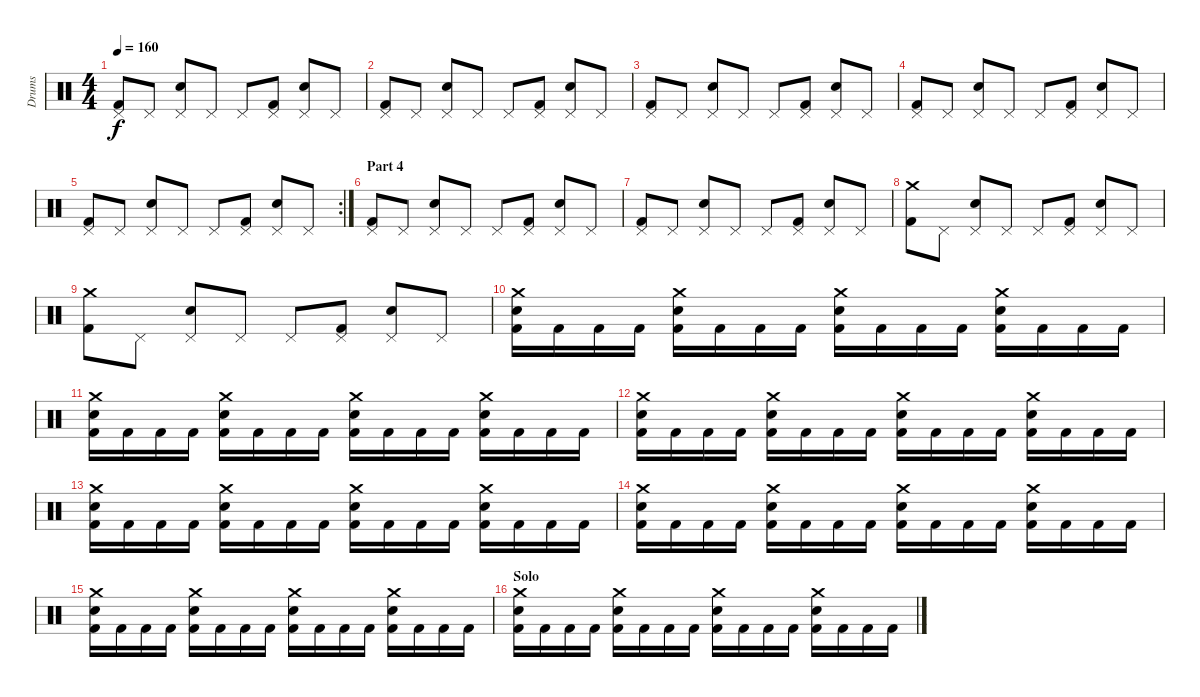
\track ("Drums" "Drums") {instrument percussion}
\staff {score}
\articulation defaults
\ts (4 4)
\tempo 160
\clef neutral
\ks c
("Pedal Hi-Hat (hit)" "Kick (hit) 2").8{dy f} "Pedal Hi-Hat (hit)".8 ("Pedal Hi-Hat (hit)" "Electric Snare (hit)").8 "Pedal Hi-Hat (hit)".8 "Pedal Hi-Hat (hit)".8 ("Pedal Hi-Hat (hit)" "Kick (hit) 2").8 ("Pedal Hi-Hat (hit)" "Electric Snare (hit)").8 "Pedal Hi-Hat (hit)".8 |
("Pedal Hi-Hat (hit)" "Kick (hit) 2").8 "Pedal Hi-Hat (hit)".8 ("Pedal Hi-Hat (hit)" "Electric Snare (hit)").8 "Pedal Hi-Hat (hit)".8 "Pedal Hi-Hat (hit)".8 ("Pedal Hi-Hat (hit)" "Kick (hit) 2").8 ("Pedal Hi-Hat (hit)" "Electric Snare (hit)").8 "Pedal Hi-Hat (hit)".8 |
("Pedal Hi-Hat (hit)" "Kick (hit) 2").8 "Pedal Hi-Hat (hit)".8 ("Pedal Hi-Hat (hit)" "Electric Snare (hit)").8 "Pedal Hi-Hat (hit)".8 "Pedal Hi-Hat (hit)".8 ("Pedal Hi-Hat (hit)" "Kick (hit) 2").8 ("Pedal Hi-Hat (hit)" "Electric Snare (hit)").8 "Pedal Hi-Hat (hit)".8 |
("Pedal Hi-Hat (hit)" "Kick (hit) 2").8 "Pedal Hi-Hat (hit)".8 ("Pedal Hi-Hat (hit)" "Electric Snare (hit)").8 "Pedal Hi-Hat (hit)".8 "Pedal Hi-Hat (hit)".8 ("Pedal Hi-Hat (hit)" "Kick (hit) 2").8 ("Pedal Hi-Hat (hit)" "Electric Snare (hit)").8 "Pedal Hi-Hat (hit)".8 |
\rc 2
("Pedal Hi-Hat (hit)" "Kick (hit) 2").8 "Pedal Hi-Hat (hit)".8 ("Pedal Hi-Hat (hit)" "Electric Snare (hit)").8 "Pedal Hi-Hat (hit)".8 "Pedal Hi-Hat (hit)".8 ("Pedal Hi-Hat (hit)" "Kick (hit) 2").8 ("Pedal Hi-Hat (hit)" "Electric Snare (hit)").8 "Pedal Hi-Hat (hit)".8 |
\section ("" "Part 4")
("Pedal Hi-Hat (hit)" "Kick (hit) 2").8 "Pedal Hi-Hat (hit)".8 ("Pedal Hi-Hat (hit)" "Electric Snare (hit)").8 "Pedal Hi-Hat (hit)".8 "Pedal Hi-Hat (hit)".8 ("Pedal Hi-Hat (hit)" "Kick (hit) 2").8 ("Pedal Hi-Hat (hit)" "Electric Snare (hit)").8 "Pedal Hi-Hat (hit)".8 |
("Pedal Hi-Hat (hit)" "Kick (hit) 2").8 "Pedal Hi-Hat (hit)".8 ("Pedal Hi-Hat (hit)" "Electric Snare (hit)").8 "Pedal Hi-Hat (hit)".8 "Pedal Hi-Hat (hit)".8 ("Pedal Hi-Hat (hit)" "Kick (hit) 2").8 ("Pedal Hi-Hat (hit)" "Electric Snare (hit)").8 "Pedal Hi-Hat (hit)".8 |
("Crash medium (hit)" "Kick (hit) 2").8 "Pedal Hi-Hat (hit)".8 ("Pedal Hi-Hat (hit)" "Electric Snare (hit)").8 "Pedal Hi-Hat (hit)".8 "Pedal Hi-Hat (hit)".8 ("Pedal Hi-Hat (hit)" "Kick (hit) 2").8 ("Pedal Hi-Hat (hit)" "Electric Snare (hit)").8 "Pedal Hi-Hat (hit)".8 |
("Crash medium (hit)" "Kick (hit) 2").8 "Pedal Hi-Hat (hit)".8 ("Pedal Hi-Hat (hit)" "Electric Snare (hit)").8 "Pedal Hi-Hat (hit)".8 "Pedal Hi-Hat (hit)".8 ("Pedal Hi-Hat (hit)" "Kick (hit) 2").8 ("Pedal Hi-Hat (hit)" "Electric Snare (hit)").8 "Pedal Hi-Hat (hit)".8 |
("Crash medium (hit)" "Electric Snare (hit)" "Kick (hit) 2").16 "Kick (hit) 2".16 "Kick (hit) 2".16 "Kick (hit) 2".16 ("Crash medium (hit)" "Electric Snare (hit)" "Kick (hit) 2").16 "Kick (hit) 2".16 "Kick (hit) 2".16 "Kick (hit) 2".16 ("Crash medium (hit)" "Electric Snare (hit)" "Kick (hit) 2").16 "Kick (hit) 2".16 "Kick (hit) 2".16 "Kick (hit) 2".16 ("Crash medium (hit)" "Electric Snare (hit)" "Kick (hit) 2").16 "Kick (hit) 2".16 "Kick (hit) 2".16 "Kick (hit) 2".16 |
("Crash medium (hit)" "Electric Snare (hit)" "Kick (hit) 2").16 "Kick (hit) 2".16 "Kick (hit) 2".16 "Kick (hit) 2".16 ("Crash medium (hit)" "Electric Snare (hit)" "Kick (hit) 2").16 "Kick (hit) 2".16 "Kick (hit) 2".16 "Kick (hit) 2".16 ("Crash medium (hit)" "Electric Snare (hit)" "Kick (hit) 2").16 "Kick (hit) 2".16 "Kick (hit) 2".16 "Kick (hit) 2".16 ("Crash medium (hit)" "Electric Snare (hit)" "Kick (hit) 2").16 "Kick (hit) 2".16 "Kick (hit) 2".16 "Kick (hit) 2".16 |
("Crash medium (hit)" "Electric Snare (hit)" "Kick (hit) 2").16 "Kick (hit) 2".16 "Kick (hit) 2".16 "Kick (hit) 2".16 ("Crash medium (hit)" "Electric Snare (hit)" "Kick (hit) 2").16 "Kick (hit) 2".16 "Kick (hit) 2".16 "Kick (hit) 2".16 ("Crash medium (hit)" "Electric Snare (hit)" "Kick (hit) 2").16 "Kick (hit) 2".16 "Kick (hit) 2".16 "Kick (hit) 2".16 ("Crash medium (hit)" "Electric Snare (hit)" "Kick (hit) 2").16 "Kick (hit) 2".16 "Kick (hit) 2".16 "Kick (hit) 2".16 |
("Crash medium (hit)" "Electric Snare (hit)" "Kick (hit) 2").16 "Kick (hit) 2".16 "Kick (hit) 2".16 "Kick (hit) 2".16 ("Crash medium (hit)" "Electric Snare (hit)" "Kick (hit) 2").16 "Kick (hit) 2".16 "Kick (hit) 2".16 "Kick (hit) 2".16 ("Crash medium (hit)" "Electric Snare (hit)" "Kick (hit) 2").16 "Kick (hit) 2".16 "Kick (hit) 2".16 "Kick (hit) 2".16 ("Crash medium (hit)" "Electric Snare (hit)" "Kick (hit) 2").16 "Kick (hit) 2".16 "Kick (hit) 2".16 "Kick (hit) 2".16 |
("Crash medium (hit)" "Electric Snare (hit)" "Kick (hit) 2").16 "Kick (hit) 2".16 "Kick (hit) 2".16 "Kick (hit) 2".16 ("Crash medium (hit)" "Electric Snare (hit)" "Kick (hit) 2").16 "Kick (hit) 2".16 "Kick (hit) 2".16 "Kick (hit) 2".16 ("Crash medium (hit)" "Electric Snare (hit)" "Kick (hit) 2").16 "Kick (hit) 2".16 "Kick (hit) 2".16 "Kick (hit) 2".16 ("Crash medium (hit)" "Electric Snare (hit)" "Kick (hit) 2").16 "Kick (hit) 2".16 "Kick (hit) 2".16 "Kick (hit) 2".16 |
("Crash medium (hit)" "Electric Snare (hit)" "Kick (hit) 2").16 "Kick (hit) 2".16 "Kick (hit) 2".16 "Kick (hit) 2".16 ("Crash medium (hit)" "Electric Snare (hit)" "Kick (hit) 2").16 "Kick (hit) 2".16 "Kick (hit) 2".16 "Kick (hit) 2".16 ("Crash medium (hit)" "Electric Snare (hit)" "Kick (hit) 2").16 "Kick (hit) 2".16 "Kick (hit) 2".16 "Kick (hit) 2".16 ("Crash medium (hit)" "Electric Snare (hit)" "Kick (hit) 2").16 "Kick (hit) 2".16 "Kick (hit) 2".16 "Kick (hit) 2".16 |
\section ("" "Solo")
("Crash medium (hit)" "Electric Snare (hit)" "Kick (hit) 2").16 "Kick (hit) 2".16 "Kick (hit) 2".16 "Kick (hit) 2".16 ("Crash medium (hit)" "Electric Snare (hit)" "Kick (hit) 2").16 "Kick (hit) 2".16 "Kick (hit) 2".16 "Kick (hit) 2".16 ("Crash medium (hit)" "Electric Snare (hit)" "Kick (hit) 2").16 "Kick (hit) 2".16 "Kick (hit) 2".16 "Kick (hit) 2".16 ("Crash medium (hit)" "Electric Snare (hit)" "Kick (hit) 2").16 "Kick (hit) 2".16 "Kick (hit) 2".16 "Kick (hit) 2".16
